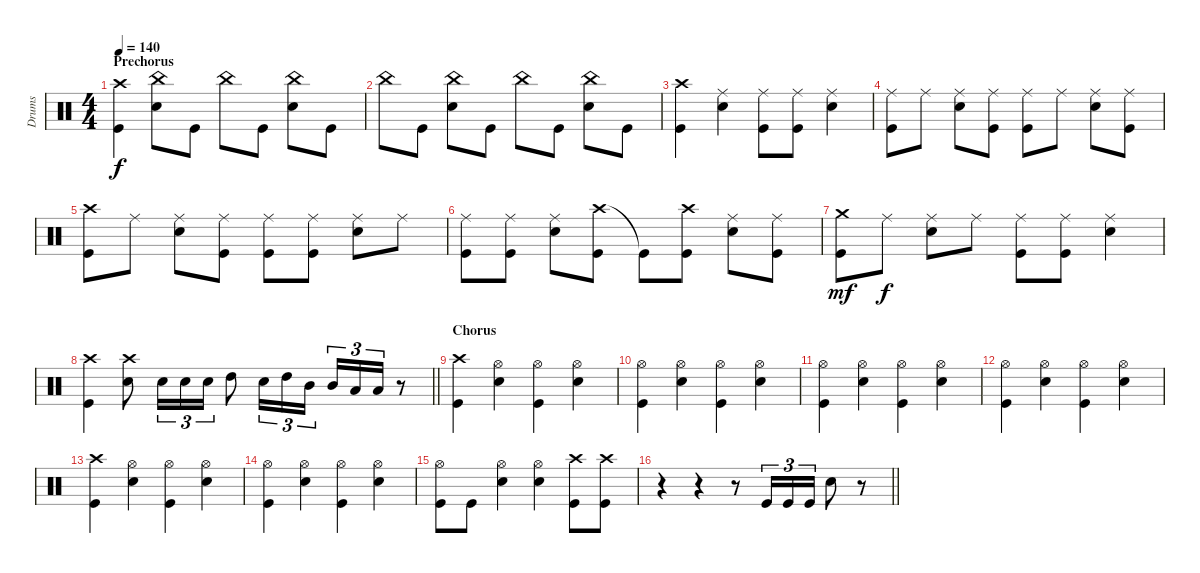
\track ("Drums" "Drums") {instrument percussion}
\staff {score}
\articulation defaults
\ts (4 4)
\section ("" "Prechorus")
\tempo 140
\clef neutral
\ks c
("Crash high (hit)" "Kick (hit)").4{dy f} ("China (hit)" "Snare (hit) 2").8 "Kick (hit)".8 "China (hit)".8 "Kick (hit)".8 ("China (hit)" "Snare (hit) 2").8 "Kick (hit)".8 |
"China (hit)".8 "Kick (hit)".8 ("China (hit)" "Snare (hit) 2").8 "Kick (hit)".8 "China (hit)".8 "Kick (hit)".8 ("China (hit)" "Snare (hit) 2").8 "Kick (hit)".8 |
("Kick (hit)" "Crash high (hit)").4 ("Snare (hit) 2" "Ride (middle)").4 ("Kick (hit)" "Ride (middle)").8 ("Kick (hit)" "Ride (middle)").8 ("Snare (hit) 2" "Ride (middle)").4 |
("Kick (hit)" "Ride (middle)").8 "Ride (middle)".8 ("Snare (hit) 2" "Ride (middle)").8 ("Ride (middle)" "Kick (hit)").8 ("Ride (middle)" "Kick (hit)").8 "Ride (middle)".8 ("Snare (hit) 2" "Ride (middle)").8 ("Ride (middle)" "Kick (hit)").8 |
("Crash high (hit)" "Kick (hit)").8 "Ride (middle)".8 ("Ride (middle)" "Snare (hit) 2").8 ("Ride (middle)" "Kick (hit)").8 ("Ride (middle)" "Kick (hit)").8 ("Ride (middle)" "Kick (hit)").8 ("Ride (middle)" "Snare (hit) 2").8 "Ride (middle)".8 |
("Ride (middle)" "Kick (hit)").8 ("Ride (middle)" "Kick (hit)").8 ("Ride (middle)" "Snare (hit) 2").8 ("Crash high (hit)" "Kick (hit)").8 "Kick (hit)"{t}.8 ("Crash high (hit)" "Kick (hit)").8 ("Ride (middle)" "Snare (hit) 2").8 ("Ride (middle)" "Kick (hit)").8 |
("Crash medium (hit)" "Kick (hit)").8{dy mf} "Ride (middle)".8{dy f} ("Ride (middle)" "Snare (hit) 2").8 "Ride (middle)".8 ("Ride (middle)" "Kick (hit)").8 ("Ride (middle)" "Kick (hit)").8 ("Ride (middle)" "Snare (hit) 2").4 |
\barLineRight lightlight
("Crash high (hit)" "Kick (hit)").4 ("Crash high (hit)" "Snare (hit) 2").8 "Snare (hit) 2".16{tu (3 2)} "Snare (hit) 2".16{tu (3 2)} "Snare (hit) 2".16{tu (3 2)} "High Tom (hit)".8 "Snare (hit) 2".16{tu (3 2)} "High Tom (hit)".16{tu (3 2)} "Mid Tom (hit)".16{tu (3 2)} "Mid Tom (hit)".16{tu (3 2)} "Low Tom (hit)".16{tu (3 2)} "Low Tom (hit)".16{tu (3 2)} r.8 |
\section ("" "Chorus")
("Kick (hit)" "Crash high (hit)").4 ("Snare (hit) 2" "Hi-Hat (open)").4 ("Kick (hit)" "Hi-Hat (open)").4 ("Snare (hit) 2" "Hi-Hat (open)").4 |
("Kick (hit)" "Hi-Hat (open)").4 ("Snare (hit) 2" "Hi-Hat (open)").4 ("Kick (hit)" "Hi-Hat (open)").4 ("Snare (hit) 2" "Hi-Hat (open)").4 |
("Kick (hit)" "Hi-Hat (open)").4 ("Snare (hit) 2" "Hi-Hat (open)").4 ("Kick (hit)" "Hi-Hat (open)").4 ("Snare (hit) 2" "Hi-Hat (open)").4 |
("Kick (hit)" "Hi-Hat (open)").4 ("Snare (hit) 2" "Hi-Hat (open)").4 ("Kick (hit)" "Hi-Hat (open)").4 ("Snare (hit) 2" "Hi-Hat (open)").4 |
("Kick (hit)" "Crash high (hit)").4 ("Snare (hit) 2" "Hi-Hat (open)").4 ("Kick (hit)" "Hi-Hat (open)").4 ("Snare (hit) 2" "Hi-Hat (open)").4 |
("Kick (hit)" "Hi-Hat (open)").4 ("Snare (hit) 2" "Hi-Hat (open)").4 ("Kick (hit)" "Hi-Hat (open)").4 ("Snare (hit) 2" "Hi-Hat (open)").4 |
("Kick (hit)" "Hi-Hat (open)").8 "Kick (hit)".8 ("Snare (hit) 2" "Hi-Hat (open)").4 ("Hi-Hat (open)" "Snare (hit) 2").4 ("Kick (hit)" "Crash high (hit)").8 ("Kick (hit)" "Crash high (hit)").8 |
\barLineRight lightlight
r.4 r.4 r.8 "Kick (hit)".16{tu (3 2)} "Kick (hit)".16{tu (3 2)} "Kick (hit)".16{tu (3 2)} "Snare (hit) 2".8 r.8
